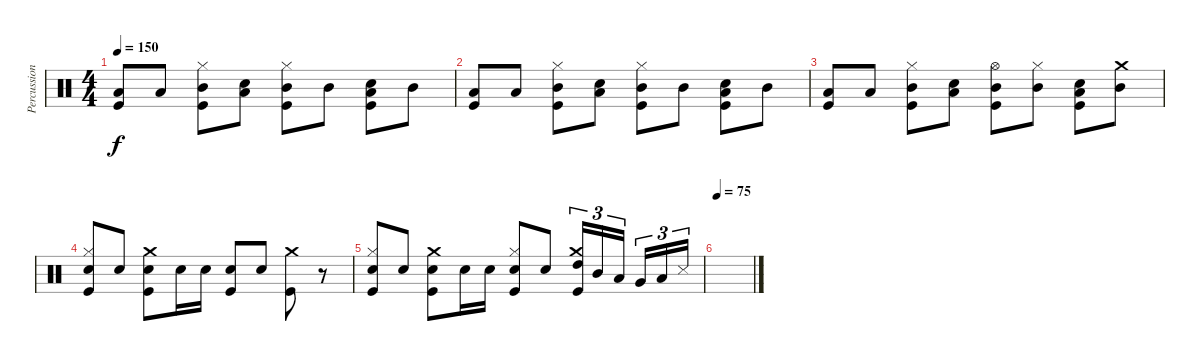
\track ("Percussions" "Percussion") {instrument percussion}
\staff {score}
\articulation defaults
\ts (4 4)
\tempo 150
\clef neutral
\ks c
("Low Tom (hit)" "Kick (hit)").8{dy f} "Low Tom (hit)".8 ("Mid Tom (hit)" "Hi-Hat (closed)" "Kick (hit)").8 ("Low Tom (hit)" "Electric Snare (hit)").8 ("Mid Tom (hit)" "Hi-Hat (closed)" "Kick (hit)").8 "Mid Tom (hit)".8 ("Low Tom (hit)" "Electric Snare (hit)" "Kick (hit)").8 "Mid Tom (hit)".8 |
("Low Tom (hit)" "Kick (hit)").8 "Low Tom (hit)".8 ("Mid Tom (hit)" "Hi-Hat (closed)" "Kick (hit)").8 ("Low Tom (hit)" "Electric Snare (hit)").8 ("Mid Tom (hit)" "Hi-Hat (closed)" "Kick (hit)").8 "Mid Tom (hit)".8 ("Low Tom (hit)" "Electric Snare (hit)" "Kick (hit)").8 "Mid Tom (hit)".8 |
("Low Tom (hit)" "Kick (hit)").8 "Low Tom (hit)".8 ("Mid Tom (hit)" "Hi-Hat (closed)" "Kick (hit)").8 ("Low Tom (hit)" "Electric Snare (hit)").8 ("Mid Tom (hit)" "Hi-Hat (open)" "Kick (hit)").8 ("Mid Tom (hit)" "Hi-Hat (closed)").8 ("Low Tom (hit)" "Electric Snare (hit)" "Kick (hit)").8 ("Mid Tom (hit)" "Crash medium (hit)").8 |
("Electric Snare (hit)" "Hi-Hat (closed)" "Kick (hit)").8 "Electric Snare (hit)".8 ("Electric Snare (hit)" "Crash medium (hit)" "Kick (hit)").8 "Electric Snare (hit)".16 "Electric Snare (hit)".16 ("Electric Snare (hit)" "Kick (hit)").8 "Electric Snare (hit)".8 ("Crash medium (hit)" "Kick (hit)").8 r.8 |
("Electric Snare (hit)" "Hi-Hat (closed)" "Kick (hit)").8 "Electric Snare (hit)".8 ("Electric Snare (hit)" "Crash medium (hit)" "Kick (hit)").8 "Electric Snare (hit)".16 "Electric Snare (hit)".16 ("Electric Snare (hit)" "Hi-Hat (closed)" "Kick (hit)").8 "Electric Snare (hit)".8 ("High Tom (hit)" "Crash medium (hit)" "Kick (hit)").16{tu (3 2)} "Mid Tom (hit)".16{tu (3 2)} "Low Tom (hit)".16{tu (3 2)} "Very Low Tom (hit)".16{tu (3 2)} "Low Floor Tom (hit)".16{tu (3 2)} "Snare (side stick) 3".16{tu (3 2)} |
\tempo 75
